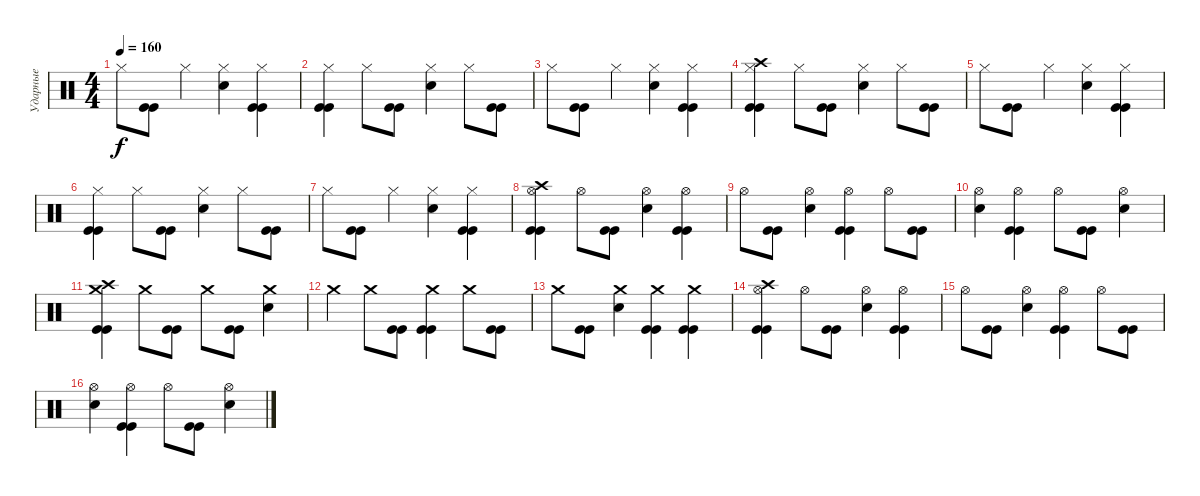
\track ("Ударные" "Ударные") {instrument percussion}
\staff {score}
\articulation defaults
\ts (4 4)
\tempo 160
\clef neutral
\ks c "Hi-Hat (closed)".8{dy f}
("Kick (hit)" "Kick (hit)").8 "Hi-Hat (closed)".4 ("Hi-Hat (closed)" "Snare (hit) 2").4 ("Hi-Hat (closed)" "Kick (hit)" "Kick (hit)").4 |
("Hi-Hat (closed)" "Kick (hit)" "Kick (hit)").4 "Hi-Hat (closed)".8 ("Kick (hit)" "Kick (hit)").8 ("Hi-Hat (closed)" "Snare (hit) 2").4 "Hi-Hat (closed)".8 ("Kick (hit)" "Kick (hit)").8 |
"Hi-Hat (closed)".8 ("Kick (hit)" "Kick (hit)").8 "Hi-Hat (closed)".4 ("Hi-Hat (closed)" "Snare (hit) 2").4 ("Hi-Hat (closed)" "Kick (hit)" "Kick (hit)").4 |
("Crash high (hit)" "Hi-Hat (closed)" "Kick (hit)" "Kick (hit)").4 "Hi-Hat (closed)".8 ("Kick (hit)" "Kick (hit)").8 ("Hi-Hat (closed)" "Snare (hit) 2").4 "Hi-Hat (closed)".8 ("Kick (hit)" "Kick (hit)").8 |
"Hi-Hat (closed)".8 ("Kick (hit)" "Kick (hit)").8 "Hi-Hat (closed)".4 ("Hi-Hat (closed)" "Snare (hit) 2").4 ("Hi-Hat (closed)" "Kick (hit)" "Kick (hit)").4 |
("Hi-Hat (closed)" "Kick (hit)" "Kick (hit)").4 "Hi-Hat (closed)".8 ("Kick (hit)" "Kick (hit)").8 ("Hi-Hat (closed)" "Snare (hit) 2").4 "Hi-Hat (closed)".8 ("Kick (hit)" "Kick (hit)").8 |
"Hi-Hat (closed)".8 ("Kick (hit)" "Kick (hit)").8 "Hi-Hat (closed)".4 ("Hi-Hat (closed)" "Snare (hit) 2").4 ("Hi-Hat (closed)" "Kick (hit)" "Kick (hit)").4 |
("Crash high (hit)" "Hi-Hat (open)" "Kick (hit)" "Kick (hit)").4 "Hi-Hat (open)".8 ("Kick (hit)" "Kick (hit)").8 ("Hi-Hat (open)" "Snare (hit) 2").4 ("Hi-Hat (open)" "Kick (hit)" "Kick (hit)").4 |
"Hi-Hat (open)".8 ("Kick (hit)" "Kick (hit)").8 ("Hi-Hat (open)" "Snare (hit) 2").4 ("Hi-Hat (open)" "Kick (hit)" "Kick (hit)").4 "Hi-Hat (open)".8 ("Kick (hit)" "Kick (hit)").8 |
("Hi-Hat (open)" "Snare (hit) 2").4 ("Hi-Hat (open)" "Kick (hit)" "Kick (hit)").4 "Hi-Hat (open)".8 ("Kick (hit)" "Kick (hit)").8 ("Hi-Hat (open)" "Snare (hit) 2").4 |
("Crash high (hit)" "Crash medium (hit)" "Kick (hit)" "Kick (hit)").4 "Crash medium (hit)".8 ("Kick (hit)" "Kick (hit)").8 "Crash medium (hit)".8 ("Kick (hit)" "Kick (hit)").8 ("Crash medium (hit)" "Snare (hit) 2").4 |
"Crash medium (hit)".4 "Crash medium (hit)".8 ("Kick (hit)" "Kick (hit)").8 ("Crash medium (hit)" "Kick (hit)" "Kick (hit)").4 "Crash medium (hit)".8 ("Kick (hit)" "Kick (hit)").8 |
"Crash medium (hit)".8 ("Kick (hit)" "Kick (hit)").8 ("Crash medium (hit)" "Snare (hit) 2").4 ("Crash medium (hit)" "Kick (hit)" "Kick (hit)").4 ("Crash medium (hit)" "Kick (hit)" "Kick (hit)").4 |
("Crash high (hit)" "Hi-Hat (open)" "Kick (hit)" "Kick (hit)").4 "Hi-Hat (open)".8 ("Kick (hit)" "Kick (hit)").8 ("Hi-Hat (open)" "Snare (hit) 2").4 ("Hi-Hat (open)" "Kick (hit)" "Kick (hit)").4 |
"Hi-Hat (open)".8 ("Kick (hit)" "Kick (hit)").8 ("Hi-Hat (open)" "Snare (hit) 2").4 ("Hi-Hat (open)" "Kick (hit)" "Kick (hit)").4 "Hi-Hat (open)".8 ("Kick (hit)" "Kick (hit)").8 |
("Hi-Hat (open)" "Snare (hit) 2").4 ("Hi-Hat (open)" "Kick (hit)" "Kick (hit)").4 "Hi-Hat (open)".8 ("Kick (hit)" "Kick (hit)").8 ("Hi-Hat (open)" "Snare (hit) 2").4
